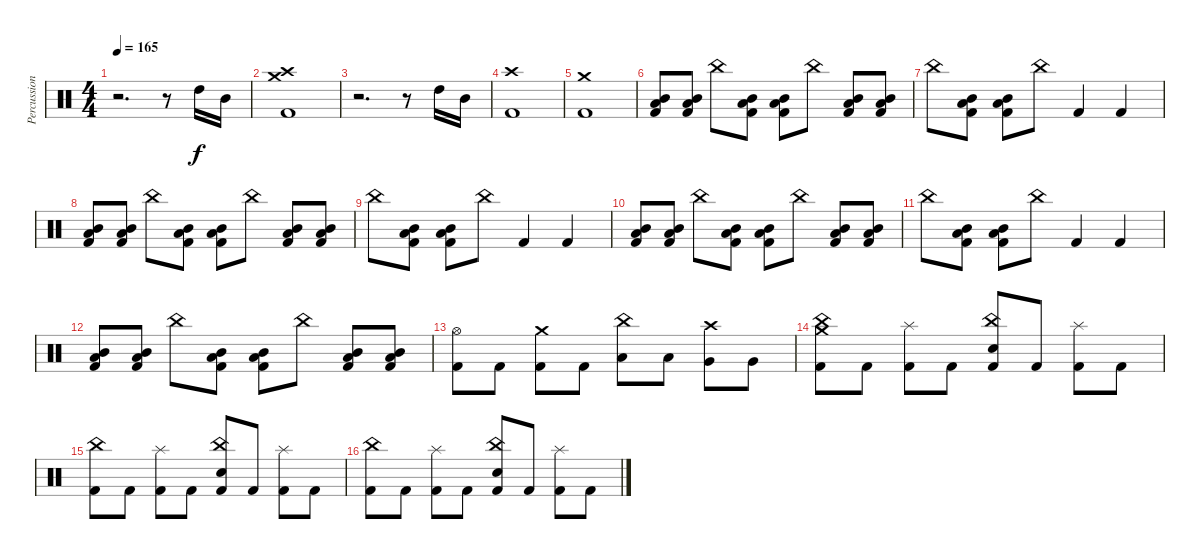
\track ("Percussion" "Percussion") {instrument percussion}
\staff {score}
\articulation defaults
\ts (4 4)
\tempo 165
\clef neutral
\ks c
r.2{d dy f} r.8 "High Tom (hit)".16 "Mid Tom (hit)".16 |
("Crash medium (hit)" "Crash high (hit)" "Kick (hit) 2").1 |
r.2{d} r.8 "High Tom (hit)".16 "Mid Tom (hit)".16 |
("Crash high (hit)" "Kick (hit) 2").1 |
("Crash medium (hit)" "Kick (hit) 2").1 |
("Mid Tom (hit)" "Low Tom (hit)" "Kick (hit) 2").8 ("Mid Tom (hit)" "Low Tom (hit)" "Kick (hit) 2").8 "China (hit)".8 ("Mid Tom (hit)" "Low Tom (hit)" "Kick (hit) 2").8 ("Mid Tom (hit)" "Low Tom (hit)" "Kick (hit) 2").8 "China (hit)".8 ("Mid Tom (hit)" "Low Tom (hit)" "Kick (hit) 2").8 ("Mid Tom (hit)" "Low Tom (hit)" "Kick (hit) 2").8 |
"China (hit)".8 ("Mid Tom (hit)" "Low Tom (hit)" "Kick (hit) 2").8 ("Mid Tom (hit)" "Low Tom (hit)" "Kick (hit) 2").8 "China (hit)".8 "Kick (hit) 2".4 "Kick (hit) 2".4 |
("Mid Tom (hit)" "Low Tom (hit)" "Kick (hit) 2").8 ("Mid Tom (hit)" "Low Tom (hit)" "Kick (hit) 2").8 "China (hit)".8 ("Mid Tom (hit)" "Low Tom (hit)" "Kick (hit) 2").8 ("Mid Tom (hit)" "Low Tom (hit)" "Kick (hit) 2").8 "China (hit)".8 ("Mid Tom (hit)" "Low Tom (hit)" "Kick (hit) 2").8 ("Mid Tom (hit)" "Low Tom (hit)" "Kick (hit) 2").8 |
"China (hit)".8 ("Mid Tom (hit)" "Low Tom (hit)" "Kick (hit) 2").8 ("Mid Tom (hit)" "Low Tom (hit)" "Kick (hit) 2").8 "China (hit)".8 "Kick (hit) 2".4 "Kick (hit) 2".4 |
("Mid Tom (hit)" "Low Tom (hit)" "Kick (hit) 2").8 ("Mid Tom (hit)" "Low Tom (hit)" "Kick (hit) 2").8 "China (hit)".8 ("Mid Tom (hit)" "Low Tom (hit)" "Kick (hit) 2").8 ("Mid Tom (hit)" "Low Tom (hit)" "Kick (hit) 2").8 "China (hit)".8 ("Mid Tom (hit)" "Low Tom (hit)" "Kick (hit) 2").8 ("Mid Tom (hit)" "Low Tom (hit)" "Kick (hit) 2").8 |
"China (hit)".8 ("Mid Tom (hit)" "Low Tom (hit)" "Kick (hit) 2").8 ("Mid Tom (hit)" "Low Tom (hit)" "Kick (hit) 2").8 "China (hit)".8 "Kick (hit) 2".4 "Kick (hit) 2".4 |
("Mid Tom (hit)" "Low Tom (hit)" "Kick (hit) 2").8 ("Mid Tom (hit)" "Low Tom (hit)" "Kick (hit) 2").8 "China (hit)".8 ("Mid Tom (hit)" "Low Tom (hit)" "Kick (hit) 2").8 ("Mid Tom (hit)" "Low Tom (hit)" "Kick (hit) 2").8 "China (hit)".8 ("Mid Tom (hit)" "Low Tom (hit)" "Kick (hit) 2").8 ("Mid Tom (hit)" "Low Tom (hit)" "Kick (hit) 2").8 |
("Hi-Hat (open)" "Kick (hit) 2").8 "Kick (hit) 2".8 ("Crash medium (hit)" "Kick (hit) 2").8 "Kick (hit) 2".8 ("China (hit)" "Low Tom (hit)").8 "Low Tom (hit)".8 ("Crash high (hit)" "Very Low Tom (hit)").8 "Very Low Tom (hit)".8 |
("Crash medium (hit)" "China (hit)" "Kick (hit) 2").8 "Kick (hit) 2".8 ("Splash (hit)" "Kick (hit) 2").8 "Kick (hit) 2".8 ("China (hit)" "Snare (hit) 2" "Kick (hit) 2").8 "Kick (hit) 2".8 ("Splash (hit)" "Kick (hit) 2").8 "Kick (hit) 2".8 |
("China (hit)" "Kick (hit) 2").8 "Kick (hit) 2".8 ("Splash (hit)" "Kick (hit) 2").8 "Kick (hit) 2".8 ("China (hit)" "Snare (hit) 2" "Kick (hit) 2").8 "Kick (hit) 2".8 ("Splash (hit)" "Kick (hit) 2").8 "Kick (hit) 2".8 |
("China (hit)" "Kick (hit) 2").8 "Kick (hit) 2".8 ("Splash (hit)" "Kick (hit) 2").8 "Kick (hit) 2".8 ("China (hit)" "Snare (hit) 2" "Kick (hit) 2").8 "Kick (hit) 2".8 ("Splash (hit)" "Kick (hit) 2").8 "Kick (hit) 2".8
